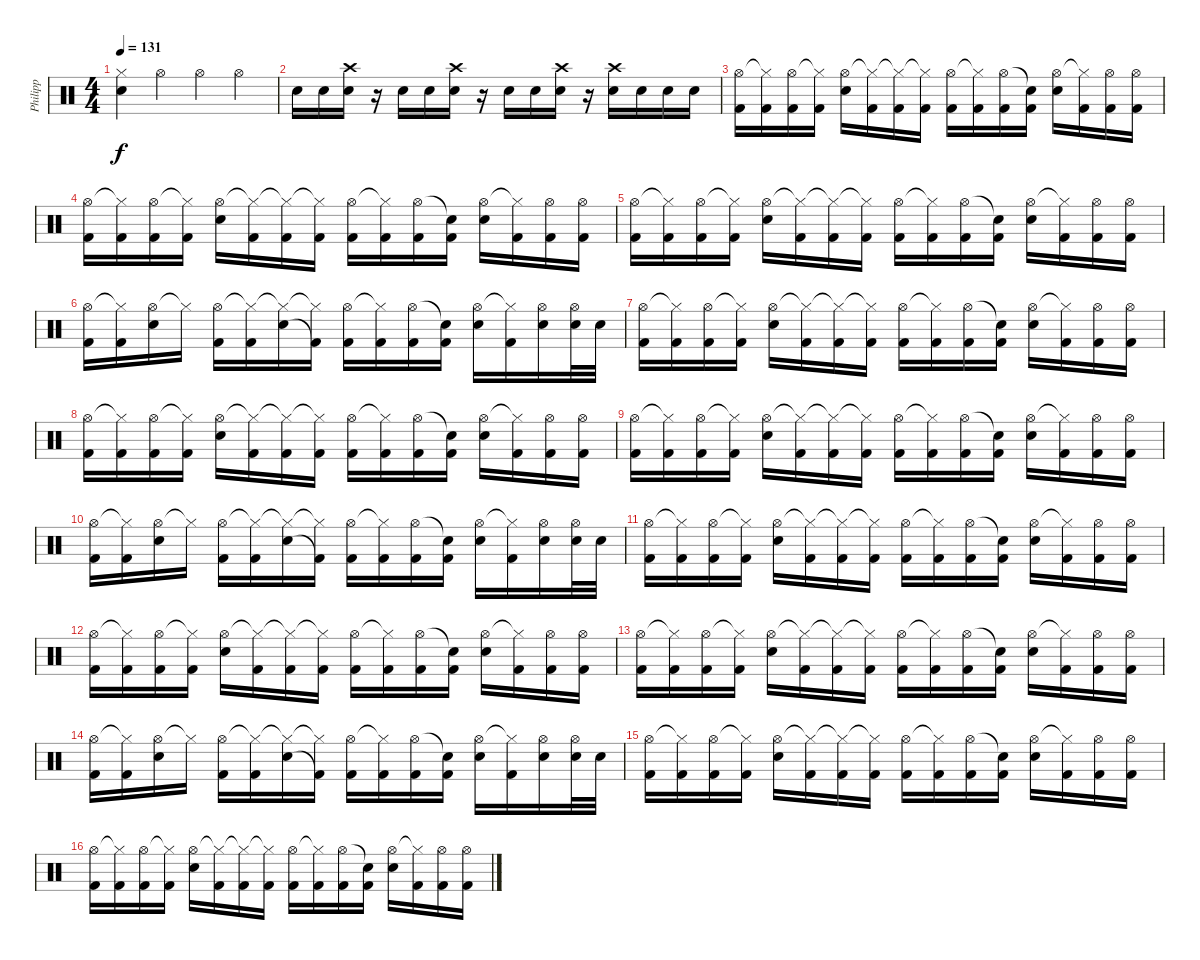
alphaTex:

\track ("Philipp" "Philipp") {instrument percussion}
\staff {score}
\articulation defaults
\ts (4 4)
\tempo 131
\clef neutral
\ks c
("Hi-Hat (closed)" "Electric Snare (hit)").4{dy f} "Hi-Hat (open)".4 "Hi-Hat (open)".4 "Hi-Hat (open)".4 |
"Electric Snare (hit)".16 "Electric Snare (hit)".16 ("Crash high (hit)" "Electric Snare (hit)").16 r.16 "Electric Snare (hit)".16 "Electric Snare (hit)".16 ("Crash high (hit)" "Electric Snare (hit)").16 r.16 "Electric Snare (hit)".16 "Electric Snare (hit)".16 ("Crash high (hit)" "Electric Snare (hit)").16 r.16 ("Crash high (hit)" "Electric Snare (hit)").16 "Electric Snare (hit)".16 "Electric Snare (hit)".16 "Electric Snare (hit)".16 |
("Hi-Hat (open)" "Kick (hit) 2").16 ("Hi-Hat (closed)"{t} "Kick (hit) 2").16 ("Hi-Hat (open)" "Kick (hit) 2").16 ("Hi-Hat (closed)"{t} "Kick (hit) 2").16 ("Hi-Hat (open)" "Electric Snare (hit)").16 ("Hi-Hat (closed)"{t} "Kick (hit) 2").16 ("Hi-Hat (closed)"{t} "Kick (hit) 2").16 ("Hi-Hat (closed)"{t} "Kick (hit) 2").16 ("Hi-Hat (open)" "Kick (hit) 2").16 ("Hi-Hat (closed)"{t} "Kick (hit) 2").16 ("Hi-Hat (open)" "Kick (hit) 2").16 ("Snare (hit)"{t} "Kick (hit) 2").16 ("Hi-Hat (open)" "Electric Snare (hit)").16 ("Hi-Hat (closed)"{t} "Kick (hit) 2").16 ("Hi-Hat (open)" "Kick (hit) 2").16 ("Hi-Hat (open)" "Kick (hit) 2").16 |
("Hi-Hat (open)" "Kick (hit) 2").16 ("Hi-Hat (closed)"{t} "Kick (hit) 2").16 ("Hi-Hat (open)" "Kick (hit) 2").16 ("Hi-Hat (closed)"{t} "Kick (hit) 2").16 ("Hi-Hat (open)" "Electric Snare (hit)").16 ("Hi-Hat (closed)"{t} "Kick (hit) 2").16 ("Hi-Hat (closed)"{t} "Kick (hit) 2").16 ("Hi-Hat (closed)"{t} "Kick (hit) 2").16 ("Hi-Hat (open)" "Kick (hit) 2").16 ("Hi-Hat (closed)"{t} "Kick (hit) 2").16 ("Hi-Hat (open)" "Kick (hit) 2").16 ("Snare (hit)"{t} "Kick (hit) 2").16 ("Hi-Hat (open)" "Electric Snare (hit)").16 ("Hi-Hat (closed)"{t} "Kick (hit) 2").16 ("Hi-Hat (open)" "Kick (hit) 2").16 ("Hi-Hat (open)" "Kick (hit) 2").16 |
("Hi-Hat (open)" "Kick (hit) 2").16 ("Hi-Hat (closed)"{t} "Kick (hit) 2").16 ("Hi-Hat (open)" "Kick (hit) 2").16 ("Hi-Hat (closed)"{t} "Kick (hit) 2").16 ("Hi-Hat (open)" "Electric Snare (hit)").16 ("Hi-Hat (closed)"{t} "Kick (hit) 2").16 ("Hi-Hat (closed)"{t} "Kick (hit) 2").16 ("Hi-Hat (closed)"{t} "Kick (hit) 2").16 ("Hi-Hat (open)" "Kick (hit) 2").16 ("Hi-Hat (closed)"{t} "Kick (hit) 2").16 ("Hi-Hat (open)" "Kick (hit) 2").16 ("Snare (hit)"{t} "Kick (hit) 2").16 ("Hi-Hat (open)" "Electric Snare (hit)").16 ("Hi-Hat (closed)"{t} "Kick (hit) 2").16 ("Hi-Hat (open)" "Kick (hit) 2").16 ("Hi-Hat (open)" "Kick (hit) 2").16 |
("Hi-Hat (open)" "Kick (hit) 2").16 ("Hi-Hat (closed)"{t} "Kick (hit) 2").16 ("Hi-Hat (open)" "Electric Snare (hit)").16 "Hi-Hat (closed)"{t}.16 ("Hi-Hat (open)" "Kick (hit) 2").16 ("Hi-Hat (closed)"{t} "Kick (hit) 2").16 ("Hi-Hat (closed)"{t} "Electric Snare (hit)").16 ("Hi-Hat (closed)"{t} "Kick (hit) 2"{t}).16 ("Hi-Hat (open)" "Kick (hit) 2").16 ("Hi-Hat (closed)"{t} "Kick (hit) 2").16 ("Hi-Hat (open)" "Kick (hit) 2").16 ("Snare (hit)"{t} "Kick (hit) 2").16 ("Hi-Hat (open)" "Electric Snare (hit)").16 ("Hi-Hat (closed)"{t} "Kick (hit) 2").16 ("Hi-Hat (open)" "Electric Snare (hit)").16 ("Hi-Hat (open)" "Electric Snare (hit)").32 "Electric Snare (hit)".32 |
("Hi-Hat (open)" "Kick (hit) 2").16 ("Hi-Hat (closed)"{t} "Kick (hit) 2").16 ("Hi-Hat (open)" "Kick (hit) 2").16 ("Hi-Hat (closed)"{t} "Kick (hit) 2").16 ("Hi-Hat (open)" "Electric Snare (hit)").16 ("Hi-Hat (closed)"{t} "Kick (hit) 2").16 ("Hi-Hat (closed)"{t} "Kick (hit) 2").16 ("Hi-Hat (closed)"{t} "Kick (hit) 2").16 ("Hi-Hat (open)" "Kick (hit) 2").16 ("Hi-Hat (closed)"{t} "Kick (hit) 2").16 ("Hi-Hat (open)" "Kick (hit) 2").16 ("Snare (hit)"{t} "Kick (hit) 2").16 ("Hi-Hat (open)" "Electric Snare (hit)").16 ("Hi-Hat (closed)"{t} "Kick (hit) 2").16 ("Hi-Hat (open)" "Kick (hit) 2").16 ("Hi-Hat (open)" "Kick (hit) 2").16 |
("Hi-Hat (open)" "Kick (hit) 2").16 ("Hi-Hat (closed)"{t} "Kick (hit) 2").16 ("Hi-Hat (open)" "Kick (hit) 2").16 ("Hi-Hat (closed)"{t} "Kick (hit) 2").16 ("Hi-Hat (open)" "Electric Snare (hit)").16 ("Hi-Hat (closed)"{t} "Kick (hit) 2").16 ("Hi-Hat (closed)"{t} "Kick (hit) 2").16 ("Hi-Hat (closed)"{t} "Kick (hit) 2").16 ("Hi-Hat (open)" "Kick (hit) 2").16 ("Hi-Hat (closed)"{t} "Kick (hit) 2").16 ("Hi-Hat (open)" "Kick (hit) 2").16 ("Snare (hit)"{t} "Kick (hit) 2").16 ("Hi-Hat (open)" "Electric Snare (hit)").16 ("Hi-Hat (closed)"{t} "Kick (hit) 2").16 ("Hi-Hat (open)" "Kick (hit) 2").16 ("Hi-Hat (open)" "Kick (hit) 2").16 |
("Hi-Hat (open)" "Kick (hit) 2").16 ("Hi-Hat (closed)"{t} "Kick (hit) 2").16 ("Hi-Hat (open)" "Kick (hit) 2").16 ("Hi-Hat (closed)"{t} "Kick (hit) 2").16 ("Hi-Hat (open)" "Electric Snare (hit)").16 ("Hi-Hat (closed)"{t} "Kick (hit) 2").16 ("Hi-Hat (closed)"{t} "Kick (hit) 2").16 ("Hi-Hat (closed)"{t} "Kick (hit) 2").16 ("Hi-Hat (open)" "Kick (hit) 2").16 ("Hi-Hat (closed)"{t} "Kick (hit) 2").16 ("Hi-Hat (open)" "Kick (hit) 2").16 ("Snare (hit)"{t} "Kick (hit) 2").16 ("Hi-Hat (open)" "Electric Snare (hit)").16 ("Hi-Hat (closed)"{t} "Kick (hit) 2").16 ("Hi-Hat (open)" "Kick (hit) 2").16 ("Hi-Hat (open)" "Kick (hit) 2").16 |
("Hi-Hat (open)" "Kick (hit) 2").16 ("Hi-Hat (closed)"{t} "Kick (hit) 2").16 ("Hi-Hat (open)" "Electric Snare (hit)").16 "Hi-Hat (closed)"{t}.16 ("Hi-Hat (open)" "Kick (hit) 2").16 ("Hi-Hat (closed)"{t} "Kick (hit) 2").16 ("Hi-Hat (closed)"{t} "Electric Snare (hit)").16 ("Hi-Hat (closed)"{t} "Kick (hit) 2"{t}).16 ("Hi-Hat (open)" "Kick (hit) 2").16 ("Hi-Hat (closed)"{t} "Kick (hit) 2").16 ("Hi-Hat (open)" "Kick (hit) 2").16 ("Snare (hit)"{t} "Kick (hit) 2").16 ("Hi-Hat (open)" "Electric Snare (hit)").16 ("Hi-Hat (closed)"{t} "Kick (hit) 2").16 ("Hi-Hat (open)" "Electric Snare (hit)").16 ("Hi-Hat (open)" "Electric Snare (hit)").32 "Electric Snare (hit)".32 |
("Hi-Hat (open)" "Kick (hit) 2").16 ("Hi-Hat (closed)"{t} "Kick (hit) 2").16 ("Hi-Hat (open)" "Kick (hit) 2").16 ("Hi-Hat (closed)"{t} "Kick (hit) 2").16 ("Hi-Hat (open)" "Electric Snare (hit)").16 ("Hi-Hat (closed)"{t} "Kick (hit) 2").16 ("Hi-Hat (closed)"{t} "Kick (hit) 2").16 ("Hi-Hat (closed)"{t} "Kick (hit) 2").16 ("Hi-Hat (open)" "Kick (hit) 2").16 ("Hi-Hat (closed)"{t} "Kick (hit) 2").16 ("Hi-Hat (open)" "Kick (hit) 2").16 ("Snare (hit)"{t} "Kick (hit) 2").16 ("Hi-Hat (open)" "Electric Snare (hit)").16 ("Hi-Hat (closed)"{t} "Kick (hit) 2").16 ("Hi-Hat (open)" "Kick (hit) 2").16 ("Hi-Hat (open)" "Kick (hit) 2").16 |
("Hi-Hat (open)" "Kick (hit) 2").16 ("Hi-Hat (closed)"{t} "Kick (hit) 2").16 ("Hi-Hat (open)" "Kick (hit) 2").16 ("Hi-Hat (closed)"{t} "Kick (hit) 2").16 ("Hi-Hat (open)" "Electric Snare (hit)").16 ("Hi-Hat (closed)"{t} "Kick (hit) 2").16 ("Hi-Hat (closed)"{t} "Kick (hit) 2").16 ("Hi-Hat (closed)"{t} "Kick (hit) 2").16 ("Hi-Hat (open)" "Kick (hit) 2").16 ("Hi-Hat (closed)"{t} "Kick (hit) 2").16 ("Hi-Hat (open)" "Kick (hit) 2").16 ("Snare (hit)"{t} "Kick (hit) 2").16 ("Hi-Hat (open)" "Electric Snare (hit)").16 ("Hi-Hat (closed)"{t} "Kick (hit) 2").16 ("Hi-Hat (open)" "Kick (hit) 2").16 ("Hi-Hat (open)" "Kick (hit) 2").16 |
("Hi-Hat (open)" "Kick (hit) 2").16 ("Hi-Hat (closed)"{t} "Kick (hit) 2").16 ("Hi-Hat (open)" "Kick (hit) 2").16 ("Hi-Hat (closed)"{t} "Kick (hit) 2").16 ("Hi-Hat (open)" "Electric Snare (hit)").16 ("Hi-Hat (closed)"{t} "Kick (hit) 2").16 ("Hi-Hat (closed)"{t} "Kick (hit) 2").16 ("Hi-Hat (closed)"{t} "Kick (hit) 2").16 ("Hi-Hat (open)" "Kick (hit) 2").16 ("Hi-Hat (closed)"{t} "Kick (hit) 2").16 ("Hi-Hat (open)" "Kick (hit) 2").16 ("Snare (hit)"{t} "Kick (hit) 2").16 ("Hi-Hat (open)" "Electric Snare (hit)").16 ("Hi-Hat (closed)"{t} "Kick (hit) 2").16 ("Hi-Hat (open)" "Kick (hit) 2").16 ("Hi-Hat (open)" "Kick (hit) 2").16 |
("Hi-Hat (open)" "Kick (hit) 2").16 ("Hi-Hat (closed)"{t} "Kick (hit) 2").16 ("Hi-Hat (open)" "Electric Snare (hit)").16 "Hi-Hat (closed)"{t}.16 ("Hi-Hat (open)" "Kick (hit) 2").16 ("Hi-Hat (closed)"{t} "Kick (hit) 2").16 ("Hi-Hat (closed)"{t} "Electric Snare (hit)").16 ("Hi-Hat (closed)"{t} "Kick (hit) 2"{t}).16 ("Hi-Hat (open)" "Kick (hit) 2").16 ("Hi-Hat (closed)"{t} "Kick (hit) 2").16 ("Hi-Hat (open)" "Kick (hit) 2").16 ("Snare (hit)"{t} "Kick (hit) 2").16 ("Hi-Hat (open)" "Electric Snare (hit)").16 ("Hi-Hat (closed)"{t} "Kick (hit) 2").16 ("Hi-Hat (open)" "Electric Snare (hit)").16 ("Hi-Hat (open)" "Electric Snare (hit)").32 "Electric Snare (hit)".32 |
("Hi-Hat (open)" "Kick (hit) 2").16 ("Hi-Hat (closed)"{t} "Kick (hit) 2").16 ("Hi-Hat (open)" "Kick (hit) 2").16 ("Hi-Hat (closed)"{t} "Kick (hit) 2").16 ("Hi-Hat (open)" "Electric Snare (hit)").16 ("Hi-Hat (closed)"{t} "Kick (hit) 2").16 ("Hi-Hat (closed)"{t} "Kick (hit) 2").16 ("Hi-Hat (closed)"{t} "Kick (hit) 2").16 ("Hi-Hat (open)" "Kick (hit) 2").16 ("Hi-Hat (closed)"{t} "Kick (hit) 2").16 ("Hi-Hat (open)" "Kick (hit) 2").16 ("Snare (hit)"{t} "Kick (hit) 2").16 ("Hi-Hat (open)" "Electric Snare (hit)").16 ("Hi-Hat (closed)"{t} "Kick (hit) 2").16 ("Hi-Hat (open)" "Kick (hit) 2").16 ("Hi-Hat (open)" "Kick (hit) 2").16 |
("Hi-Hat (open)" "Kick (hit) 2").16 ("Hi-Hat (closed)"{t} "Kick (hit) 2").16 ("Hi-Hat (open)" "Kick (hit) 2").16 ("Hi-Hat (closed)"{t} "Kick (hit) 2").16 ("Hi-Hat (open)" "Electric Snare (hit)").16 ("Hi-Hat (closed)"{t} "Kick (hit) 2").16 ("Hi-Hat (closed)"{t} "Kick (hit) 2").16 ("Hi-Hat (closed)"{t} "Kick (hit) 2").16 ("Hi-Hat (open)" "Kick (hit) 2").16 ("Hi-Hat (closed)"{t} "Kick (hit) 2").16 ("Hi-Hat (open)" "Kick (hit) 2").16 ("Snare (hit)"{t} "Kick (hit) 2").16 ("Hi-Hat (open)" "Electric Snare (hit)").16 ("Hi-Hat (closed)"{t} "Kick (hit) 2").16 ("Hi-Hat (open)" "Kick (hit) 2").16 ("Hi-Hat (open)" "Kick (hit) 2").16
